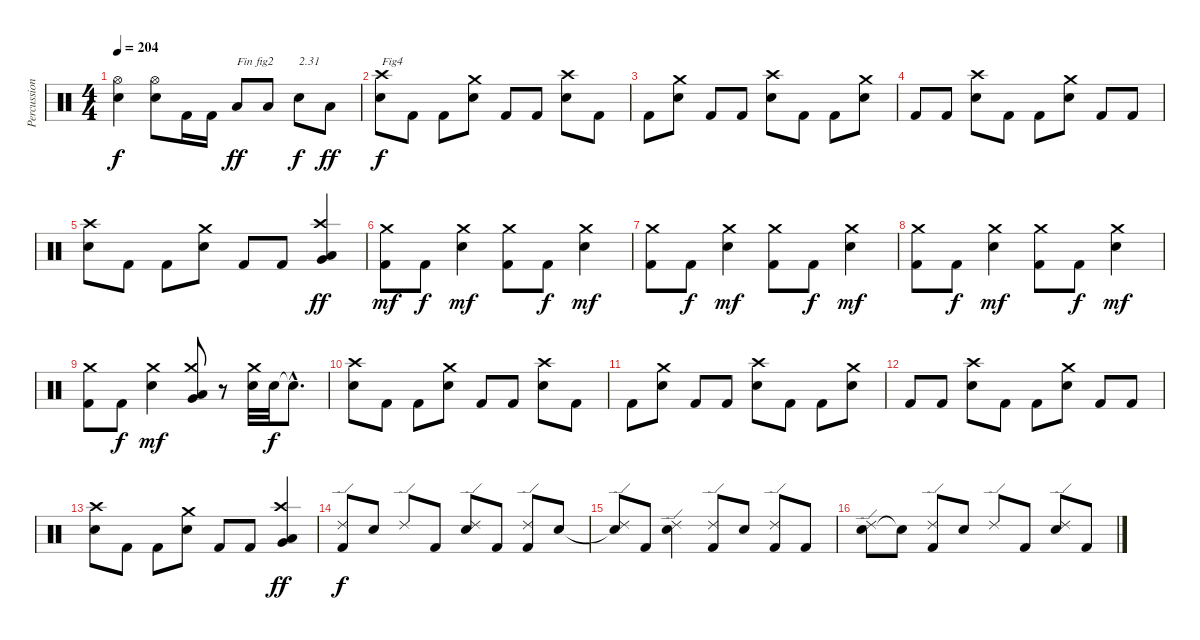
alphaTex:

\track ("Percussions" "Percussion") {instrument percussion}
\staff {score}
\articulation defaults
\ts (4 4)
\tempo 204
\clef neutral
\ks c
("Electric Snare (hit)" "Hi-Hat (open)").4{dy f} ("Electric Snare (hit)" "Hi-Hat (open)").8 "Kick (hit) 2".16 "Kick (hit) 2".16 "Low Floor Tom (hit)".8{txt "Fin fig2" dy ff} "Low Floor Tom (hit)".8 "Electric Snare (hit)".8{txt "2.31" dy f} "Low Floor Tom (hit)".8{dy ff} |
("Electric Snare (hit)" "Crash high (hit)").8{txt "Fig4" dy f} "Kick (hit) 2".8 "Kick (hit) 2".8 ("Electric Snare (hit)" "Crash medium (hit)").8 "Kick (hit) 2".8 "Kick (hit) 2".8 ("Electric Snare (hit)" "Crash high (hit)").8 "Kick (hit) 2".8 |
"Kick (hit) 2".8 ("Electric Snare (hit)" "Crash medium (hit)").8 "Kick (hit) 2".8 "Kick (hit) 2".8 ("Electric Snare (hit)" "Crash high (hit)").8 "Kick (hit) 2".8 "Kick (hit) 2".8 ("Electric Snare (hit)" "Crash medium (hit)").8 |
"Kick (hit) 2".8 "Kick (hit) 2".8 ("Electric Snare (hit)" "Crash high (hit)").8 "Kick (hit) 2".8 "Kick (hit) 2".8 ("Electric Snare (hit)" "Crash medium (hit)").8 "Kick (hit) 2".8 "Kick (hit) 2".8 |
("Electric Snare (hit)" "Crash high (hit)").8 "Kick (hit) 2".8 "Kick (hit) 2".8 ("Electric Snare (hit)" "Crash medium (hit)").8 "Kick (hit) 2".8 "Kick (hit) 2".8 ("Very Low Tom (hit)" "Low Floor Tom (hit)" "Crash high (hit)").4{dy ff} |
("Kick (hit) 2" "Crash medium (hit)").8{dy mf} "Kick (hit) 2".8{dy f} ("Electric Snare (hit)" "Crash medium (hit)").4{dy mf} ("Kick (hit) 2" "Crash medium (hit)").8 "Kick (hit) 2".8{dy f} ("Electric Snare (hit)" "Crash medium (hit)").4{dy mf} |
("Kick (hit) 2" "Crash medium (hit)").8 "Kick (hit) 2".8{dy f} ("Electric Snare (hit)" "Crash medium (hit)").4{dy mf} ("Kick (hit) 2" "Crash medium (hit)").8 "Kick (hit) 2".8{dy f} ("Electric Snare (hit)" "Crash medium (hit)").4{dy mf} |
("Kick (hit) 2" "Crash medium (hit)").8 "Kick (hit) 2".8{dy f} ("Electric Snare (hit)" "Crash medium (hit)").4{dy mf} ("Kick (hit) 2" "Crash medium (hit)").8 "Kick (hit) 2".8{dy f} ("Electric Snare (hit)" "Crash medium (hit)").4{dy mf} |
("Kick (hit) 2" "Crash medium (hit)").8 "Kick (hit) 2".8{dy f} ("Electric Snare (hit)" "Crash medium (hit)").4{dy mf} ("Very Low Tom (hit)" "Low Floor Tom (hit)" "Crash medium (hit)").8 r.8 ("Electric Snare (hit)" "Crash medium (hit)").32 "Electric Snare (hit)".32{dy f} "Snare (hit)"{hac t}.8{d} |
("Electric Snare (hit)" "Crash high (hit)").8 "Kick (hit) 2".8 "Kick (hit) 2".8 ("Electric Snare (hit)" "Crash medium (hit)").8 "Kick (hit) 2".8 "Kick (hit) 2".8 ("Electric Snare (hit)" "Crash high (hit)").8 "Kick (hit) 2".8 |
"Kick (hit) 2".8 ("Electric Snare (hit)" "Crash medium (hit)").8 "Kick (hit) 2".8 "Kick (hit) 2".8 ("Electric Snare (hit)" "Crash high (hit)").8 "Kick (hit) 2".8 "Kick (hit) 2".8 ("Electric Snare (hit)" "Crash medium (hit)").8 |
"Kick (hit) 2".8 "Kick (hit) 2".8 ("Electric Snare (hit)" "Crash high (hit)").8 "Kick (hit) 2".8 "Kick (hit) 2".8 ("Electric Snare (hit)" "Crash medium (hit)").8 "Kick (hit) 2".8 "Kick (hit) 2".8 |
("Electric Snare (hit)" "Crash high (hit)").8 "Kick (hit) 2".8 "Kick (hit) 2".8 ("Electric Snare (hit)" "Crash medium (hit)").8 "Kick (hit) 2".8 "Kick (hit) 2".8 ("Very Low Tom (hit)" "Low Floor Tom (hit)" "Crash high (hit)").4{dy ff} |
("Kick (hit) 2" "Ride (edge) 2").8{dy f} "Electric Snare (hit)".8 "Ride (edge) 2".8 "Kick (hit) 2".8 ("Electric Snare (hit)" "Ride (edge) 2").8 "Kick (hit) 2".8 ("Kick (hit) 2" "Ride (edge) 2").8 "Electric Snare (hit)".8 |
("Snare (hit)"{t} "Ride (edge) 2").8 "Kick (hit) 2".8 ("Electric Snare (hit)" "Ride (edge) 2").4 ("Kick (hit) 2" "Ride (edge) 2").8 "Electric Snare (hit)".8 ("Kick (hit) 2" "Ride (edge) 2").8 "Kick (hit) 2".8 |
("Electric Snare (hit)" "Ride (edge) 2").8 "Snare (hit)"{t}.8 ("Kick (hit) 2" "Ride (edge) 2").8 "Electric Snare (hit)".8 "Ride (edge) 2".8 "Kick (hit) 2".8 ("Electric Snare (hit)" "Ride (edge) 2").8 "Kick (hit) 2".8
